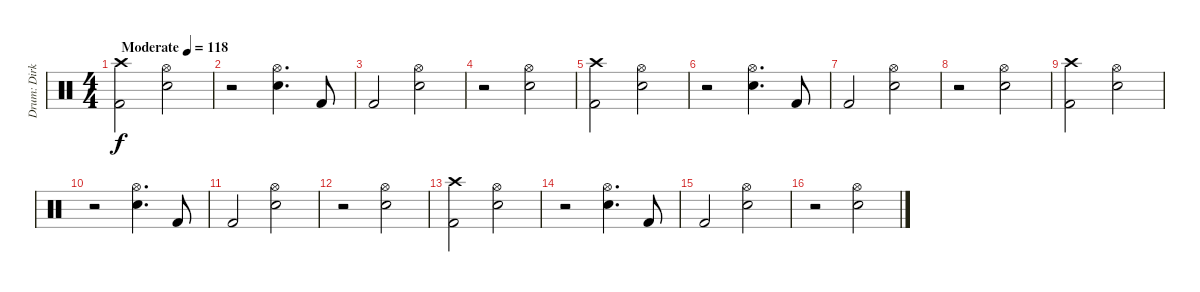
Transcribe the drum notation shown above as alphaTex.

\track ("Drum: Dirk" "Drum: Dirk") {instrument percussion}
\staff {score}
\articulation defaults
\ts (4 4)
\tempo (118 "Moderate")
\clef neutral
\ks c
("Crash high (hit)" "Kick (hit) 2").2{dy f} ("Hi-Hat (open)" "Electric Snare (hit)").2 |
r.2 ("Hi-Hat (open)" "Electric Snare (hit)").4{d} "Kick (hit) 2".8 |
"Kick (hit) 2".2 ("Hi-Hat (open)" "Electric Snare (hit)").2 |
r.2 ("Hi-Hat (open)" "Electric Snare (hit)").2 |
("Crash high (hit)" "Kick (hit) 2").2 ("Hi-Hat (open)" "Electric Snare (hit)").2 |
r.2 ("Hi-Hat (open)" "Electric Snare (hit)").4{d} "Kick (hit) 2".8 |
"Kick (hit) 2".2 ("Hi-Hat (open)" "Electric Snare (hit)").2 |
r.2 ("Hi-Hat (open)" "Electric Snare (hit)").2 |
("Crash high (hit)" "Kick (hit) 2").2 ("Hi-Hat (open)" "Electric Snare (hit)").2 |
r.2 ("Hi-Hat (open)" "Electric Snare (hit)").4{d} "Kick (hit) 2".8 |
"Kick (hit) 2".2 ("Hi-Hat (open)" "Electric Snare (hit)").2 |
r.2 ("Hi-Hat (open)" "Electric Snare (hit)").2 |
("Crash high (hit)" "Kick (hit) 2").2 ("Hi-Hat (open)" "Electric Snare (hit)").2 |
r.2 ("Hi-Hat (open)" "Electric Snare (hit)").4{d} "Kick (hit) 2".8 |
"Kick (hit) 2".2 ("Hi-Hat (open)" "Electric Snare (hit)").2 |
r.2 ("Hi-Hat (open)" "Electric Snare (hit)").2
